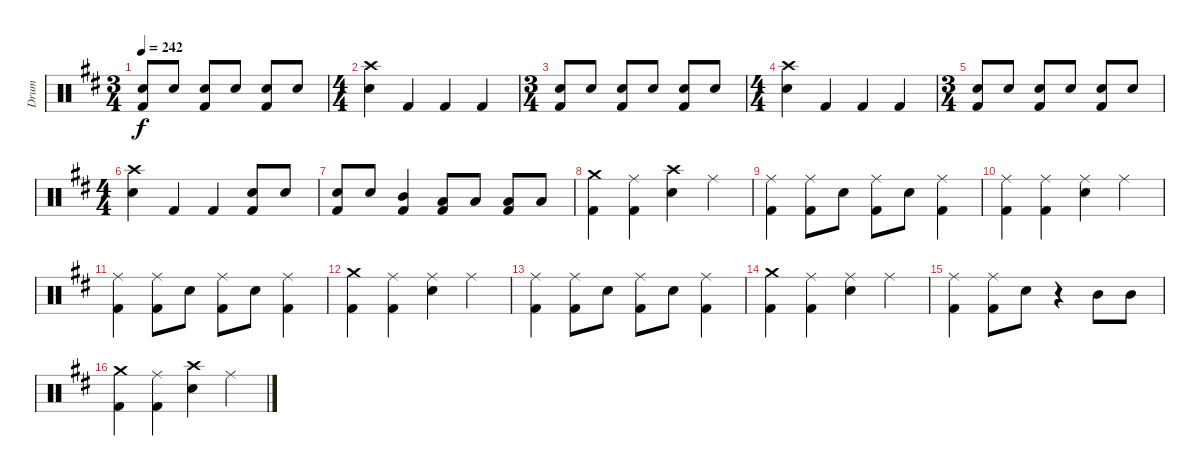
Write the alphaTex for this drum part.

\track ("Drum" "Drum") {instrument percussion}
\staff {score}
\articulation defaults
\ts (3 4)
\tempo 242
\clef neutral
\ks d
("Snare (hit) 2" "Kick (hit) 2").8{dy f} "Snare (hit) 2".8 ("Snare (hit) 2" "Kick (hit) 2").8 "Snare (hit) 2".8 ("Snare (hit) 2" "Kick (hit) 2").8 "Snare (hit) 2".8 |
\ts (4 4)
("Crash high (hit)" "Snare (hit) 2").4 "Kick (hit) 2".4 "Kick (hit) 2".4 "Kick (hit) 2".4 |
\ts (3 4)
("Snare (hit) 2" "Kick (hit) 2").8 "Snare (hit) 2".8 ("Snare (hit) 2" "Kick (hit) 2").8 "Snare (hit) 2".8 ("Snare (hit) 2" "Kick (hit) 2").8 "Snare (hit) 2".8 |
\ts (4 4)
("Crash high (hit)" "Snare (hit) 2").4 "Kick (hit) 2".4 "Kick (hit) 2".4 "Kick (hit) 2".4 |
\ts (3 4)
("Snare (hit) 2" "Kick (hit) 2").8 "Snare (hit) 2".8 ("Snare (hit) 2" "Kick (hit) 2").8 "Snare (hit) 2".8 ("Snare (hit) 2" "Kick (hit) 2").8 "Snare (hit) 2".8 |
\ts (4 4)
("Crash high (hit)" "Snare (hit) 2").4 "Kick (hit) 2".4 "Kick (hit) 2".4 ("Snare (hit) 2" "Kick (hit) 2").8 "Snare (hit) 2".8 |
("Snare (hit) 2" "Kick (hit) 2").8 "Snare (hit) 2".8 ("Mid Tom (hit)" "Kick (hit) 2").4 ("Low Tom (hit)" "Kick (hit) 2").8 "Low Tom (hit)".8 ("Low Tom (hit)" "Kick (hit) 2").8 "Low Tom (hit)".8 |
("Crash medium (hit)" "Kick (hit) 2").4 ("Ride (middle)" "Kick (hit) 2").4 ("Crash high (hit)" "Snare (hit) 2").4 "Ride (middle)".4 |
("Ride (middle)" "Kick (hit) 2").4 ("Ride (middle)" "Kick (hit) 2").8 "Snare (hit) 2".8 ("Ride (middle)" "Kick (hit) 2").8 "Snare (hit) 2".8 ("Ride (middle)" "Kick (hit) 2").4 |
("Ride (middle)" "Kick (hit) 2").4 ("Ride (middle)" "Kick (hit) 2").4 ("Ride (middle)" "Snare (hit) 2").4 "Ride (middle)".4 |
("Ride (middle)" "Kick (hit) 2").4 ("Ride (middle)" "Kick (hit) 2").8 "Snare (hit) 2".8 ("Ride (middle)" "Kick (hit) 2").8 "Snare (hit) 2".8 ("Ride (middle)" "Kick (hit) 2").4 |
("Crash medium (hit)" "Kick (hit) 2").4 ("Ride (middle)" "Kick (hit) 2").4 ("Ride (middle)" "Snare (hit) 2").4 "Ride (middle)".4 |
("Ride (middle)" "Kick (hit) 2").4 ("Ride (middle)" "Kick (hit) 2").8 "Snare (hit) 2".8 ("Ride (middle)" "Kick (hit) 2").8 "Snare (hit) 2".8 ("Ride (middle)" "Kick (hit) 2").4 |
("Crash medium (hit)" "Kick (hit) 2").4 ("Ride (middle)" "Kick (hit) 2").4 ("Ride (middle)" "Snare (hit) 2").4 "Ride (middle)".4 |
("Ride (middle)" "Kick (hit) 2").4 ("Ride (middle)" "Kick (hit) 2").8 "Snare (hit) 2".8 r.4 "Mid Tom (hit)".8 "Mid Tom (hit)".8 |
("Crash medium (hit)" "Kick (hit) 2").4 ("Ride (middle)" "Kick (hit) 2").4 ("Crash high (hit)" "Snare (hit) 2").4 "Ride (middle)".4
